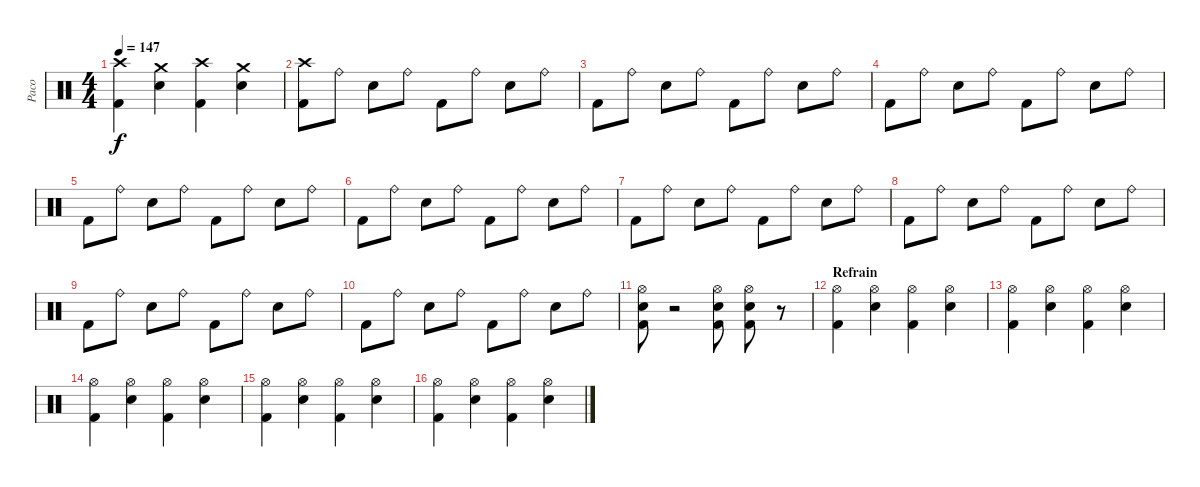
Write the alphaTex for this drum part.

\track ("Paco" "Paco") {instrument percussion}
\staff {score}
\articulation defaults
\ts (4 4)
\tempo 147
\clef neutral
\ks c
("Crash high (hit)" "Kick (hit) 2").4{dy f} ("Crash medium (hit)" "Snare (hit) 2").4 ("Crash high (hit)" "Kick (hit) 2").4 ("Crash medium (hit)" "Snare (hit) 2").4 |
("Crash high (hit)" "Kick (hit) 2").8 "Ride (bell)".8 "Snare (hit) 2".8 "Ride (bell)".8 "Kick (hit) 2".8 "Ride (bell)".8 "Snare (hit) 2".8 "Ride (bell)".8 |
"Kick (hit) 2".8 "Ride (bell)".8 "Snare (hit) 2".8 "Ride (bell)".8 "Kick (hit) 2".8 "Ride (bell)".8 "Snare (hit) 2".8 "Ride (bell)".8 |
"Kick (hit) 2".8 "Ride (bell)".8 "Snare (hit) 2".8 "Ride (bell)".8 "Kick (hit) 2".8 "Ride (bell)".8 "Snare (hit) 2".8 "Ride (bell)".8 |
"Kick (hit) 2".8 "Ride (bell)".8 "Snare (hit) 2".8 "Ride (bell)".8 "Kick (hit) 2".8 "Ride (bell)".8 "Snare (hit) 2".8 "Ride (bell)".8 |
"Kick (hit) 2".8 "Ride (bell)".8 "Snare (hit) 2".8 "Ride (bell)".8 "Kick (hit) 2".8 "Ride (bell)".8 "Snare (hit) 2".8 "Ride (bell)".8 |
"Kick (hit) 2".8 "Ride (bell)".8 "Snare (hit) 2".8 "Ride (bell)".8 "Kick (hit) 2".8 "Ride (bell)".8 "Snare (hit) 2".8 "Ride (bell)".8 |
"Kick (hit) 2".8 "Ride (bell)".8 "Snare (hit) 2".8 "Ride (bell)".8 "Kick (hit) 2".8 "Ride (bell)".8 "Snare (hit) 2".8 "Ride (bell)".8 |
"Kick (hit) 2".8 "Ride (bell)".8 "Snare (hit) 2".8 "Ride (bell)".8 "Kick (hit) 2".8 "Ride (bell)".8 "Snare (hit) 2".8 "Ride (bell)".8 |
"Kick (hit) 2".8 "Ride (bell)".8 "Snare (hit) 2".8 "Ride (bell)".8 "Kick (hit) 2".8 "Ride (bell)".8 "Snare (hit) 2".8 "Ride (bell)".8 |
("Hi-Hat (open)" "Snare (hit) 2" "Kick (hit) 2").8 r.2 ("Hi-Hat (open)" "Snare (hit) 2" "Kick (hit) 2").8 ("Hi-Hat (open)" "Snare (hit) 2" "Kick (hit) 2").8 r.8 |
\section ("" "Refrain")
("Hi-Hat (open)" "Kick (hit) 2").4 ("Hi-Hat (open)" "Snare (hit) 2").4 ("Hi-Hat (open)" "Kick (hit) 2").4 ("Hi-Hat (open)" "Snare (hit) 2").4 |
("Hi-Hat (open)" "Kick (hit) 2").4 ("Hi-Hat (open)" "Snare (hit) 2").4 ("Hi-Hat (open)" "Kick (hit) 2").4 ("Hi-Hat (open)" "Snare (hit) 2").4 |
("Hi-Hat (open)" "Kick (hit) 2").4 ("Hi-Hat (open)" "Snare (hit) 2").4 ("Hi-Hat (open)" "Kick (hit) 2").4 ("Hi-Hat (open)" "Snare (hit) 2").4 |
("Hi-Hat (open)" "Kick (hit) 2").4 ("Hi-Hat (open)" "Snare (hit) 2").4 ("Hi-Hat (open)" "Kick (hit) 2").4 ("Hi-Hat (open)" "Snare (hit) 2").4 |
("Hi-Hat (open)" "Kick (hit) 2").4 ("Hi-Hat (open)" "Snare (hit) 2").4 ("Hi-Hat (open)" "Kick (hit) 2").4 ("Hi-Hat (open)" "Snare (hit) 2").4
